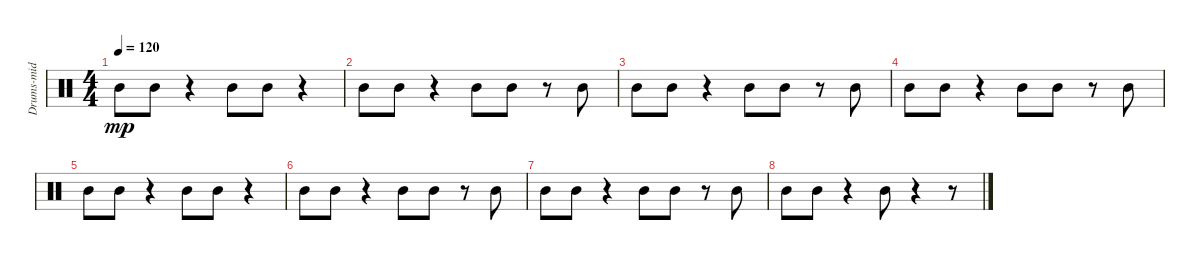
\track ("Drums-mid tom 1" "Drums-mid ") {instrument percussion}
\staff {score}
\articulation defaults
\ts (4 4)
\tempo 120
\clef neutral
\ks c "Mid Tom (hit)".8{dy mp} "Mid Tom (hit)".8
r.4 "Mid Tom (hit)".8 "Mid Tom (hit)".8 r.4 |
"Mid Tom (hit)".8 "Mid Tom (hit)".8 r.4 "Mid Tom (hit)".8 "Mid Tom (hit)".8 r.8 "Mid Tom (hit)".8 |
"Mid Tom (hit)".8 "Mid Tom (hit)".8 r.4 "Mid Tom (hit)".8 "Mid Tom (hit)".8 r.8 "Mid Tom (hit)".8 |
"Mid Tom (hit)".8 "Mid Tom (hit)".8 r.4 "Mid Tom (hit)".8 "Mid Tom (hit)".8 r.8 "Mid Tom (hit)".8 |
"Mid Tom (hit)".8 "Mid Tom (hit)".8 r.4 "Mid Tom (hit)".8 "Mid Tom (hit)".8 r.4 |
"Mid Tom (hit)".8 "Mid Tom (hit)".8 r.4 "Mid Tom (hit)".8 "Mid Tom (hit)".8 r.8 "Mid Tom (hit)".8 |
"Mid Tom (hit)".8 "Mid Tom (hit)".8 r.4 "Mid Tom (hit)".8 "Mid Tom (hit)".8 r.8 "Mid Tom (hit)".8 |
"Mid Tom (hit)".8 "Mid Tom (hit)".8 r.4 "Mid Tom (hit)".8 r.4 r.8
